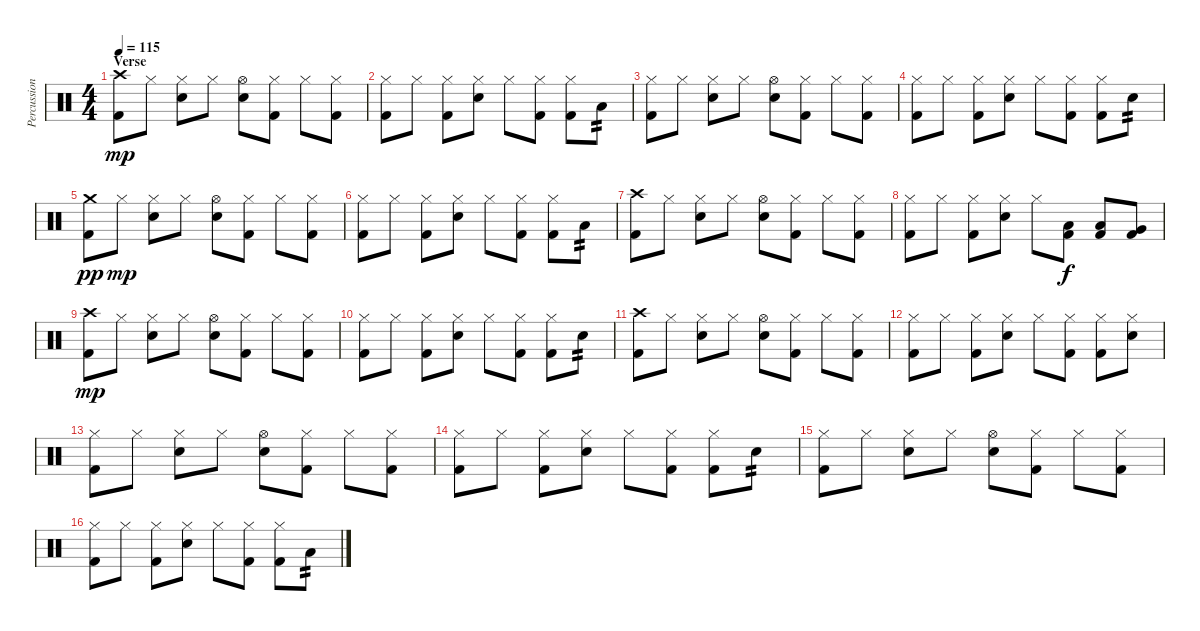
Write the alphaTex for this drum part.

\track ("Percussion" "Percussion") {instrument percussion}
\staff {score}
\articulation defaults
\ts (4 4)
\section ("" "Verse")
\tempo 115
\clef neutral
\ks c
("Crash high (hit)" "Kick (hit) 2").8{dy mp} "Hi-Hat (closed)".8 ("Hi-Hat (closed)" "Electric Snare (hit)").8 "Hi-Hat (closed)".8 ("Hi-Hat (open)" "Electric Snare (hit)").8 ("Hi-Hat (closed)" "Kick (hit) 2").8 "Hi-Hat (closed)".8 ("Hi-Hat (closed)" "Kick (hit) 2").8 |
("Hi-Hat (closed)" "Kick (hit) 2").8 "Hi-Hat (closed)".8 ("Hi-Hat (closed)" "Kick (hit) 2").8 ("Hi-Hat (closed)" "Electric Snare (hit)").8 "Hi-Hat (closed)".8 ("Hi-Hat (closed)" "Kick (hit) 2").8 ("Hi-Hat (closed)" "Kick (hit) 2").8 "Low Floor Tom (hit)".8{tp 2} |
("Hi-Hat (closed)" "Kick (hit) 2").8 "Hi-Hat (closed)".8 ("Hi-Hat (closed)" "Electric Snare (hit)").8 "Hi-Hat (closed)".8 ("Hi-Hat (open)" "Electric Snare (hit)").8 ("Hi-Hat (closed)" "Kick (hit) 2").8 "Hi-Hat (closed)".8 ("Hi-Hat (closed)" "Kick (hit) 2").8 |
("Hi-Hat (closed)" "Kick (hit) 2").8 "Hi-Hat (closed)".8 ("Hi-Hat (closed)" "Kick (hit) 2").8 ("Hi-Hat (closed)" "Electric Snare (hit)").8 "Hi-Hat (closed)".8 ("Hi-Hat (closed)" "Kick (hit) 2").8 ("Hi-Hat (closed)" "Kick (hit) 2").8 "Electric Snare (hit)".8{tp 2} |
("Crash medium (hit)" "Kick (hit) 2").8{dy pp} "Hi-Hat (closed)".8{dy mp} ("Hi-Hat (closed)" "Electric Snare (hit)").8 "Hi-Hat (closed)".8 ("Hi-Hat (open)" "Electric Snare (hit)").8 ("Hi-Hat (closed)" "Kick (hit) 2").8 "Hi-Hat (closed)".8 ("Hi-Hat (closed)" "Kick (hit) 2").8 |
("Hi-Hat (closed)" "Kick (hit) 2").8 "Hi-Hat (closed)".8 ("Hi-Hat (closed)" "Kick (hit) 2").8 ("Hi-Hat (closed)" "Electric Snare (hit)").8 "Hi-Hat (closed)".8 ("Hi-Hat (closed)" "Kick (hit) 2").8 ("Hi-Hat (closed)" "Kick (hit) 2").8 "Low Floor Tom (hit)".8{tp 2} |
("Crash high (hit)" "Kick (hit) 2").8 "Hi-Hat (closed)".8 ("Hi-Hat (closed)" "Electric Snare (hit)").8 "Hi-Hat (closed)".8 ("Hi-Hat (open)" "Electric Snare (hit)").8 ("Hi-Hat (closed)" "Kick (hit) 2").8 "Hi-Hat (closed)".8 ("Hi-Hat (closed)" "Kick (hit) 2").8 |
("Hi-Hat (closed)" "Kick (hit) 2").8 "Hi-Hat (closed)".8 ("Hi-Hat (closed)" "Kick (hit) 2").8 ("Hi-Hat (closed)" "Electric Snare (hit)").8 "Hi-Hat (closed)".8 ("Low Floor Tom (hit)" "Kick (hit) 2").8{dy f} ("Low Tom (hit)" "Kick (hit) 2").8 ("Very Low Tom (hit)" "Kick (hit) 2").8 |
("Crash high (hit)" "Kick (hit) 2").8{dy mp} "Hi-Hat (closed)".8 ("Hi-Hat (closed)" "Electric Snare (hit)").8 "Hi-Hat (closed)".8 ("Hi-Hat (open)" "Electric Snare (hit)").8 ("Hi-Hat (closed)" "Kick (hit) 2").8 "Hi-Hat (closed)".8 ("Hi-Hat (closed)" "Kick (hit) 2").8 |
("Hi-Hat (closed)" "Kick (hit) 2").8 "Hi-Hat (closed)".8 ("Hi-Hat (closed)" "Kick (hit) 2").8 ("Hi-Hat (closed)" "Electric Snare (hit)").8 "Hi-Hat (closed)".8 ("Hi-Hat (closed)" "Kick (hit) 2").8 ("Hi-Hat (closed)" "Kick (hit) 2").8 "Electric Snare (hit)".8{tp 2} |
("Crash high (hit)" "Kick (hit) 2").8 "Hi-Hat (closed)".8 ("Hi-Hat (closed)" "Electric Snare (hit)").8 "Hi-Hat (closed)".8 ("Hi-Hat (open)" "Electric Snare (hit)").8 ("Hi-Hat (closed)" "Kick (hit) 2").8 "Hi-Hat (closed)".8 ("Hi-Hat (closed)" "Kick (hit) 2").8 |
("Hi-Hat (closed)" "Kick (hit) 2").8 "Hi-Hat (closed)".8 ("Hi-Hat (closed)" "Kick (hit) 2").8 ("Hi-Hat (closed)" "Electric Snare (hit)").8 "Hi-Hat (closed)".8 ("Hi-Hat (closed)" "Kick (hit) 2").8 ("Hi-Hat (closed)" "Kick (hit) 2").8 ("Hi-Hat (closed)" "Electric Snare (hit)").8 |
("Hi-Hat (closed)" "Kick (hit) 2").8 "Hi-Hat (closed)".8 ("Hi-Hat (closed)" "Electric Snare (hit)").8 "Hi-Hat (closed)".8 ("Hi-Hat (open)" "Electric Snare (hit)").8 ("Hi-Hat (closed)" "Kick (hit) 2").8 "Hi-Hat (closed)".8 ("Hi-Hat (closed)" "Kick (hit) 2").8 |
("Hi-Hat (closed)" "Kick (hit) 2").8 "Hi-Hat (closed)".8 ("Hi-Hat (closed)" "Kick (hit) 2").8 ("Hi-Hat (closed)" "Electric Snare (hit)").8 "Hi-Hat (closed)".8 ("Hi-Hat (closed)" "Kick (hit) 2").8 ("Hi-Hat (closed)" "Kick (hit) 2").8 "Electric Snare (hit)".8{tp 2} |
("Hi-Hat (closed)" "Kick (hit) 2").8 "Hi-Hat (closed)".8 ("Hi-Hat (closed)" "Electric Snare (hit)").8 "Hi-Hat (closed)".8 ("Hi-Hat (open)" "Electric Snare (hit)").8 ("Hi-Hat (closed)" "Kick (hit) 2").8 "Hi-Hat (closed)".8 ("Hi-Hat (closed)" "Kick (hit) 2").8 |
("Hi-Hat (closed)" "Kick (hit) 2").8 "Hi-Hat (closed)".8 ("Hi-Hat (closed)" "Kick (hit) 2").8 ("Hi-Hat (closed)" "Electric Snare (hit)").8 "Hi-Hat (closed)".8 ("Hi-Hat (closed)" "Kick (hit) 2").8 ("Hi-Hat (closed)" "Kick (hit) 2").8 "Low Floor Tom (hit)".8{tp 2}
